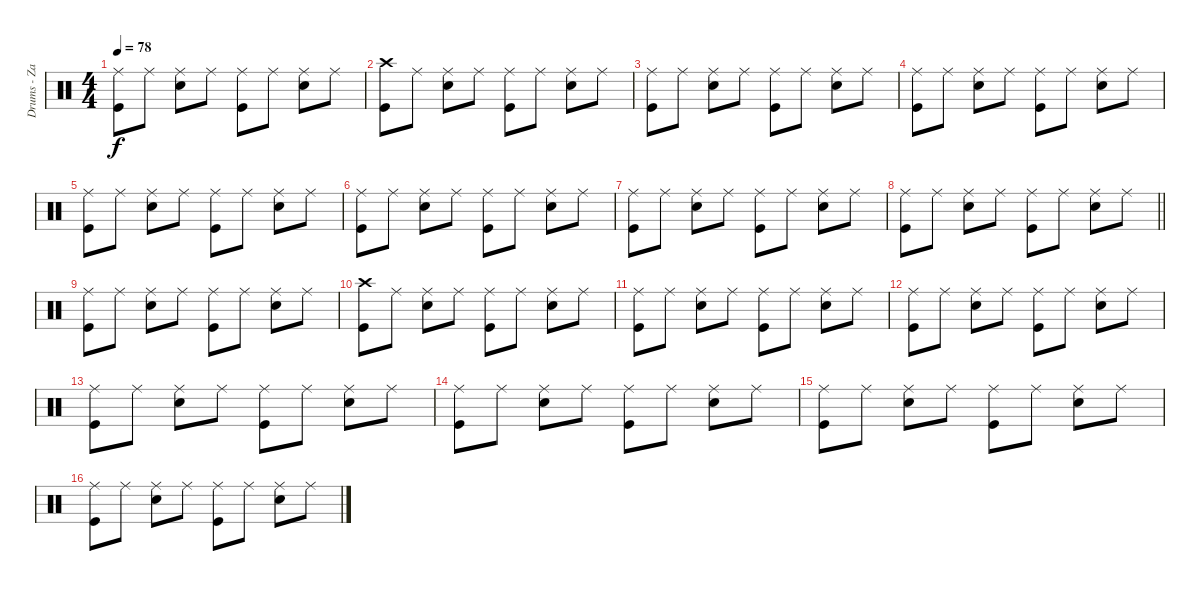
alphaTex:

\track ("Drums - Zakk Starkey" "Drums - Za") {instrument percussion}
\staff {score}
\articulation defaults
\ts (4 4)
\tempo 78
\clef neutral
\ks c
("Ride (middle)" "Kick (hit)").8{dy f} "Ride (middle)".8 ("Ride (middle)" "Snare (hit) 2").8 "Ride (middle)".8 ("Ride (middle)" "Kick (hit)").8 "Ride (middle)".8 ("Ride (middle)" "Snare (hit) 2").8 "Ride (middle)".8 |
("Crash high (hit)" "Kick (hit)").8 "Ride (middle)".8 ("Ride (middle)" "Snare (hit) 2").8 "Ride (middle)".8 ("Ride (middle)" "Kick (hit)").8 "Ride (middle)".8 ("Ride (middle)" "Snare (hit) 2").8 "Ride (middle)".8 |
("Ride (middle)" "Kick (hit)").8 "Ride (middle)".8 ("Ride (middle)" "Snare (hit) 2").8 "Ride (middle)".8 ("Ride (middle)" "Kick (hit)").8 "Ride (middle)".8 ("Ride (middle)" "Snare (hit) 2").8 "Ride (middle)".8 |
("Ride (middle)" "Kick (hit)").8 "Ride (middle)".8 ("Ride (middle)" "Snare (hit) 2").8 "Ride (middle)".8 ("Ride (middle)" "Kick (hit)").8 "Ride (middle)".8 ("Ride (middle)" "Snare (hit) 2").8 "Ride (middle)".8 |
("Ride (middle)" "Kick (hit)").8 "Ride (middle)".8 ("Ride (middle)" "Snare (hit) 2").8 "Ride (middle)".8 ("Ride (middle)" "Kick (hit)").8 "Ride (middle)".8 ("Ride (middle)" "Snare (hit) 2").8 "Ride (middle)".8 |
("Ride (middle)" "Kick (hit)").8 "Ride (middle)".8 ("Ride (middle)" "Snare (hit) 2").8 "Ride (middle)".8 ("Ride (middle)" "Kick (hit)").8 "Ride (middle)".8 ("Ride (middle)" "Snare (hit) 2").8 "Ride (middle)".8 |
("Ride (middle)" "Kick (hit)").8 "Ride (middle)".8 ("Ride (middle)" "Snare (hit) 2").8 "Ride (middle)".8 ("Ride (middle)" "Kick (hit)").8 "Ride (middle)".8 ("Ride (middle)" "Snare (hit) 2").8 "Ride (middle)".8 |
\barLineRight lightlight
("Ride (middle)" "Kick (hit)").8 "Ride (middle)".8 ("Ride (middle)" "Snare (hit) 2").8 "Ride (middle)".8 ("Ride (middle)" "Kick (hit)").8 "Ride (middle)".8 ("Ride (middle)" "Snare (hit) 2").8 "Ride (middle)".8 |
("Ride (middle)" "Kick (hit)").8 "Ride (middle)".8 ("Ride (middle)" "Snare (hit) 2").8 "Ride (middle)".8 ("Ride (middle)" "Kick (hit)").8 "Ride (middle)".8 ("Ride (middle)" "Snare (hit) 2").8 "Ride (middle)".8 |
("Crash high (hit)" "Kick (hit)").8 "Ride (middle)".8 ("Ride (middle)" "Snare (hit) 2").8 "Ride (middle)".8 ("Ride (middle)" "Kick (hit)").8 "Ride (middle)".8 ("Ride (middle)" "Snare (hit) 2").8 "Ride (middle)".8 |
("Ride (middle)" "Kick (hit)").8 "Ride (middle)".8 ("Ride (middle)" "Snare (hit) 2").8 "Ride (middle)".8 ("Ride (middle)" "Kick (hit)").8 "Ride (middle)".8 ("Ride (middle)" "Snare (hit) 2").8 "Ride (middle)".8 |
("Ride (middle)" "Kick (hit)").8 "Ride (middle)".8 ("Ride (middle)" "Snare (hit) 2").8 "Ride (middle)".8 ("Ride (middle)" "Kick (hit)").8 "Ride (middle)".8 ("Ride (middle)" "Snare (hit) 2").8 "Ride (middle)".8 |
("Ride (middle)" "Kick (hit)").8 "Ride (middle)".8 ("Ride (middle)" "Snare (hit) 2").8 "Ride (middle)".8 ("Ride (middle)" "Kick (hit)").8 "Ride (middle)".8 ("Ride (middle)" "Snare (hit) 2").8 "Ride (middle)".8 |
("Ride (middle)" "Kick (hit)").8 "Ride (middle)".8 ("Ride (middle)" "Snare (hit) 2").8 "Ride (middle)".8 ("Ride (middle)" "Kick (hit)").8 "Ride (middle)".8 ("Ride (middle)" "Snare (hit) 2").8 "Ride (middle)".8 |
("Ride (middle)" "Kick (hit)").8 "Ride (middle)".8 ("Ride (middle)" "Snare (hit) 2").8 "Ride (middle)".8 ("Ride (middle)" "Kick (hit)").8 "Ride (middle)".8 ("Ride (middle)" "Snare (hit) 2").8 "Ride (middle)".8 |
("Ride (middle)" "Kick (hit)").8 "Ride (middle)".8 ("Ride (middle)" "Snare (hit) 2").8 "Ride (middle)".8 ("Ride (middle)" "Kick (hit)").8 "Ride (middle)".8 ("Ride (middle)" "Snare (hit) 2").8 "Ride (middle)".8
